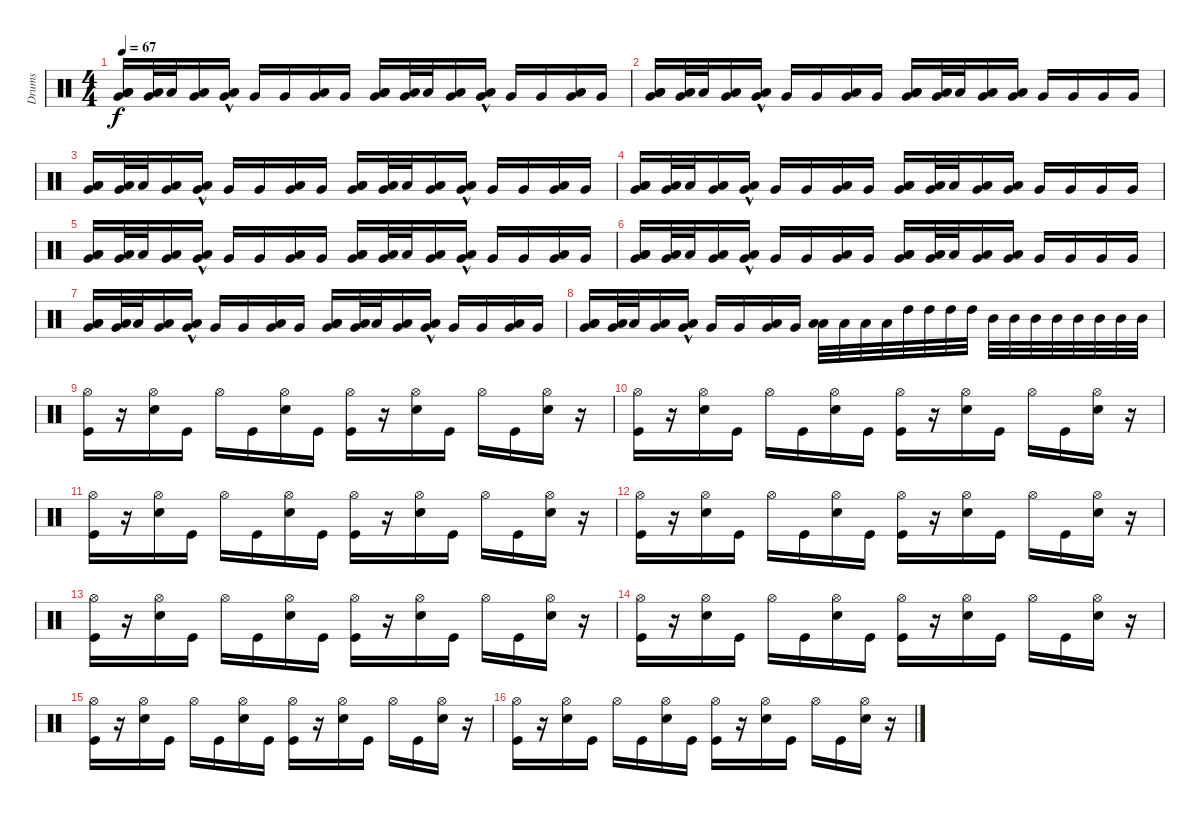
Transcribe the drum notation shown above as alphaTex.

\track ("Drums" "Drums") {instrument percussion}
\staff {score}
\articulation defaults
\ts (4 4)
\tempo 67
\clef neutral
\ks c
("Low Tom (hit)" "Low Tom (hit)" "Very Low Tom (hit)").16{dy f} ("Very Low Tom (hit)" "Low Tom (hit)").32 "Low Tom (hit)".32 ("Low Tom (hit)" "Very Low Tom (hit)").16 ("Low Tom (hit)"{hac} "Very Low Tom (hit)").16 "Very Low Tom (hit)".16 "Very Low Tom (hit)".16 ("Low Tom (hit)" "Very Low Tom (hit)").16 "Very Low Tom (hit)".16 ("Low Tom (hit)" "Very Low Tom (hit)" "Low Tom (hit)").16 ("Very Low Tom (hit)" "Low Tom (hit)").32 "Low Tom (hit)".32 ("Very Low Tom (hit)" "Low Tom (hit)").16 ("Very Low Tom (hit)" "Low Tom (hit)"{hac}).16 "Very Low Tom (hit)".16 "Very Low Tom (hit)".16 ("Very Low Tom (hit)" "Low Tom (hit)").16 "Very Low Tom (hit)".16 |
("Low Tom (hit)" "Low Tom (hit)" "Very Low Tom (hit)").16 ("Low Tom (hit)" "Very Low Tom (hit)").32 "Low Tom (hit)".32 ("Very Low Tom (hit)" "Low Tom (hit)").16 ("Very Low Tom (hit)" "Low Tom (hit)"{hac}).16 "Very Low Tom (hit)".16 "Very Low Tom (hit)".16 ("Very Low Tom (hit)" "Low Tom (hit)").16 "Very Low Tom (hit)".16 ("Low Tom (hit)" "Low Tom (hit)" "Very Low Tom (hit)").16 ("Very Low Tom (hit)" "Low Tom (hit)").32 "Low Tom (hit)".32 ("Very Low Tom (hit)" "Low Tom (hit)").16 ("Very Low Tom (hit)" "Low Tom (hit)").16 "Very Low Tom (hit)".16 "Very Low Tom (hit)".16 "Very Low Tom (hit)".16 "Very Low Tom (hit)".16 |
("Low Tom (hit)" "Low Tom (hit)" "Very Low Tom (hit)").16 ("Low Tom (hit)" "Very Low Tom (hit)").32 "Low Tom (hit)".32 ("Low Tom (hit)" "Very Low Tom (hit)").16 ("Very Low Tom (hit)" "Low Tom (hit)"{hac}).16 "Very Low Tom (hit)".16 "Very Low Tom (hit)".16 ("Very Low Tom (hit)" "Low Tom (hit)").16 "Very Low Tom (hit)".16 ("Low Tom (hit)" "Low Tom (hit)" "Very Low Tom (hit)").16 ("Low Tom (hit)" "Very Low Tom (hit)").32 "Low Tom (hit)".32 ("Very Low Tom (hit)" "Low Tom (hit)").16 ("Low Tom (hit)"{hac} "Very Low Tom (hit)").16 "Very Low Tom (hit)".16 "Very Low Tom (hit)".16 ("Very Low Tom (hit)" "Low Tom (hit)").16 "Very Low Tom (hit)".16 |
("Very Low Tom (hit)" "Low Tom (hit)" "Low Tom (hit)").16 ("Low Tom (hit)" "Very Low Tom (hit)").32 "Low Tom (hit)".32 ("Low Tom (hit)" "Very Low Tom (hit)").16 ("Very Low Tom (hit)" "Low Tom (hit)"{hac}).16 "Very Low Tom (hit)".16 "Very Low Tom (hit)".16 ("Low Tom (hit)" "Very Low Tom (hit)").16 "Very Low Tom (hit)".16 ("Very Low Tom (hit)" "Low Tom (hit)" "Low Tom (hit)").16 ("Very Low Tom (hit)" "Low Tom (hit)").32 "Low Tom (hit)".32 ("Very Low Tom (hit)" "Low Tom (hit)").16 ("Low Tom (hit)" "Very Low Tom (hit)").16 "Very Low Tom (hit)".16 "Very Low Tom (hit)".16 "Very Low Tom (hit)".16 "Very Low Tom (hit)".16 |
("Low Tom (hit)" "Low Tom (hit)" "Very Low Tom (hit)").16 ("Very Low Tom (hit)" "Low Tom (hit)").32 "Low Tom (hit)".32 ("Very Low Tom (hit)" "Low Tom (hit)").16 ("Low Tom (hit)"{hac} "Very Low Tom (hit)").16 "Very Low Tom (hit)".16 "Very Low Tom (hit)".16 ("Low Tom (hit)" "Very Low Tom (hit)").16 "Very Low Tom (hit)".16 ("Low Tom (hit)" "Very Low Tom (hit)" "Low Tom (hit)").16 ("Low Tom (hit)" "Very Low Tom (hit)").32 "Low Tom (hit)".32 ("Very Low Tom (hit)" "Low Tom (hit)").16 ("Very Low Tom (hit)" "Low Tom (hit)"{hac}).16 "Very Low Tom (hit)".16 "Very Low Tom (hit)".16 ("Very Low Tom (hit)" "Low Tom (hit)").16 "Very Low Tom (hit)".16 |
("Low Tom (hit)" "Low Tom (hit)" "Very Low Tom (hit)").16 ("Very Low Tom (hit)" "Low Tom (hit)").32 "Low Tom (hit)".32 ("Low Tom (hit)" "Very Low Tom (hit)").16 ("Low Tom (hit)"{hac} "Very Low Tom (hit)").16 "Very Low Tom (hit)".16 "Very Low Tom (hit)".16 ("Low Tom (hit)" "Very Low Tom (hit)").16 "Very Low Tom (hit)".16 ("Low Tom (hit)" "Low Tom (hit)" "Very Low Tom (hit)").16 ("Very Low Tom (hit)" "Low Tom (hit)").32 "Low Tom (hit)".32 ("Low Tom (hit)" "Very Low Tom (hit)").16 ("Very Low Tom (hit)" "Low Tom (hit)").16 "Very Low Tom (hit)".16 "Very Low Tom (hit)".16 "Very Low Tom (hit)".16 "Very Low Tom (hit)".16 |
("Very Low Tom (hit)" "Low Tom (hit)" "Low Tom (hit)").16 ("Low Tom (hit)" "Very Low Tom (hit)").32 "Low Tom (hit)".32 ("Low Tom (hit)" "Very Low Tom (hit)").16 ("Very Low Tom (hit)" "Low Tom (hit)"{hac}).16 "Very Low Tom (hit)".16 "Very Low Tom (hit)".16 ("Low Tom (hit)" "Very Low Tom (hit)").16 "Very Low Tom (hit)".16 ("Very Low Tom (hit)" "Low Tom (hit)" "Low Tom (hit)").16 ("Low Tom (hit)" "Very Low Tom (hit)").32 "Low Tom (hit)".32 ("Low Tom (hit)" "Very Low Tom (hit)").16 ("Very Low Tom (hit)" "Low Tom (hit)"{hac}).16 "Very Low Tom (hit)".16 "Very Low Tom (hit)".16 ("Low Tom (hit)" "Very Low Tom (hit)").16 "Very Low Tom (hit)".16 |
("Low Tom (hit)" "Very Low Tom (hit)" "Low Tom (hit)").16 ("Very Low Tom (hit)" "Low Tom (hit)").32 "Low Tom (hit)".32 ("Low Tom (hit)" "Very Low Tom (hit)").16 ("Very Low Tom (hit)" "Low Tom (hit)"{hac}).16 "Very Low Tom (hit)".16 "Very Low Tom (hit)".16 ("Low Tom (hit)" "Very Low Tom (hit)").16 "Very Low Tom (hit)".16 ("Low Tom (hit)" "Low Tom (hit)").32 "Low Tom (hit)".32 "Low Tom (hit)".32 "Low Tom (hit)".32 "High Tom (hit)".32 "High Tom (hit)".32 "High Tom (hit)".32 "High Tom (hit)".32 "Mid Tom (hit)".32 "Mid Tom (hit)".32 "Mid Tom (hit)".32 "Mid Tom (hit)".32 "Mid Tom (hit)".32 "Mid Tom (hit)".32 "Mid Tom (hit)".32 "Mid Tom (hit)".32 |
("Hi-Hat (open)" "Kick (hit)").16 r.16 ("Hi-Hat (open)" "Electric Snare (hit)").16 "Kick (hit)".16 "Hi-Hat (open)".16 "Kick (hit)".16 ("Electric Snare (hit)" "Hi-Hat (open)").16 "Kick (hit)".16 ("Hi-Hat (open)" "Kick (hit)").16 r.16 ("Electric Snare (hit)" "Hi-Hat (open)").16 "Kick (hit)".16 "Hi-Hat (open)".16 "Kick (hit)".16 ("Hi-Hat (open)" "Electric Snare (hit)").16 r.16 |
("Kick (hit)" "Hi-Hat (open)").16 r.16 ("Hi-Hat (open)" "Electric Snare (hit)").16 "Kick (hit)".16 "Hi-Hat (open)".16 "Kick (hit)".16 ("Hi-Hat (open)" "Electric Snare (hit)").16 "Kick (hit)".16 ("Hi-Hat (open)" "Kick (hit)").16 r.16 ("Hi-Hat (open)" "Electric Snare (hit)").16 "Kick (hit)".16 "Hi-Hat (open)".16 "Kick (hit)".16 ("Electric Snare (hit)" "Hi-Hat (open)").16 r.16 |
("Hi-Hat (open)" "Kick (hit)").16 r.16 ("Hi-Hat (open)" "Electric Snare (hit)").16 "Kick (hit)".16 "Hi-Hat (open)".16 "Kick (hit)".16 ("Electric Snare (hit)" "Hi-Hat (open)").16 "Kick (hit)".16 ("Hi-Hat (open)" "Kick (hit)").16 r.16 ("Electric Snare (hit)" "Hi-Hat (open)").16 "Kick (hit)".16 "Hi-Hat (open)".16 "Kick (hit)".16 ("Electric Snare (hit)" "Hi-Hat (open)").16 r.16 |
("Kick (hit)" "Hi-Hat (open)").16 r.16 ("Hi-Hat (open)" "Electric Snare (hit)").16 "Kick (hit)".16 "Hi-Hat (open)".16 "Kick (hit)".16 ("Hi-Hat (open)" "Electric Snare (hit)").16 "Kick (hit)".16 ("Kick (hit)" "Hi-Hat (open)").16 r.16 ("Electric Snare (hit)" "Hi-Hat (open)").16 "Kick (hit)".16 "Hi-Hat (open)".16 "Kick (hit)".16 ("Hi-Hat (open)" "Electric Snare (hit)").16 r.16 |
("Kick (hit)" "Hi-Hat (open)").16 r.16 ("Hi-Hat (open)" "Electric Snare (hit)").16 "Kick (hit)".16 "Hi-Hat (open)".16 "Kick (hit)".16 ("Electric Snare (hit)" "Hi-Hat (open)").16 "Kick (hit)".16 ("Hi-Hat (open)" "Kick (hit)").16 r.16 ("Electric Snare (hit)" "Hi-Hat (open)").16 "Kick (hit)".16 "Hi-Hat (open)".16 "Kick (hit)".16 ("Electric Snare (hit)" "Hi-Hat (open)").16 r.16 |
("Hi-Hat (open)" "Kick (hit)").16 r.16 ("Hi-Hat (open)" "Electric Snare (hit)").16 "Kick (hit)".16 "Hi-Hat (open)".16 "Kick (hit)".16 ("Electric Snare (hit)" "Hi-Hat (open)").16 "Kick (hit)".16 ("Hi-Hat (open)" "Kick (hit)").16 r.16 ("Hi-Hat (open)" "Electric Snare (hit)").16 "Kick (hit)".16 "Hi-Hat (open)".16 "Kick (hit)".16 ("Electric Snare (hit)" "Hi-Hat (open)").16 r.16 |
("Kick (hit)" "Hi-Hat (open)").16 r.16 ("Hi-Hat (open)" "Electric Snare (hit)").16 "Kick (hit)".16 "Hi-Hat (open)".16 "Kick (hit)".16 ("Electric Snare (hit)" "Hi-Hat (open)").16 "Kick (hit)".16 ("Hi-Hat (open)" "Kick (hit)").16 r.16 ("Hi-Hat (open)" "Electric Snare (hit)").16 "Kick (hit)".16 "Hi-Hat (open)".16 "Kick (hit)".16 ("Electric Snare (hit)" "Hi-Hat (open)").16 r.16 |
("Kick (hit)" "Hi-Hat (open)").16 r.16 ("Hi-Hat (open)" "Electric Snare (hit)").16 "Kick (hit)".16 "Hi-Hat (open)".16 "Kick (hit)".16 ("Electric Snare (hit)" "Hi-Hat (open)").16 "Kick (hit)".16 ("Kick (hit)" "Hi-Hat (open)").16 r.16 ("Hi-Hat (open)" "Electric Snare (hit)").16 "Kick (hit)".16 "Hi-Hat (open)".16 "Kick (hit)".16 ("Electric Snare (hit)" "Hi-Hat (open)").16 r.16
